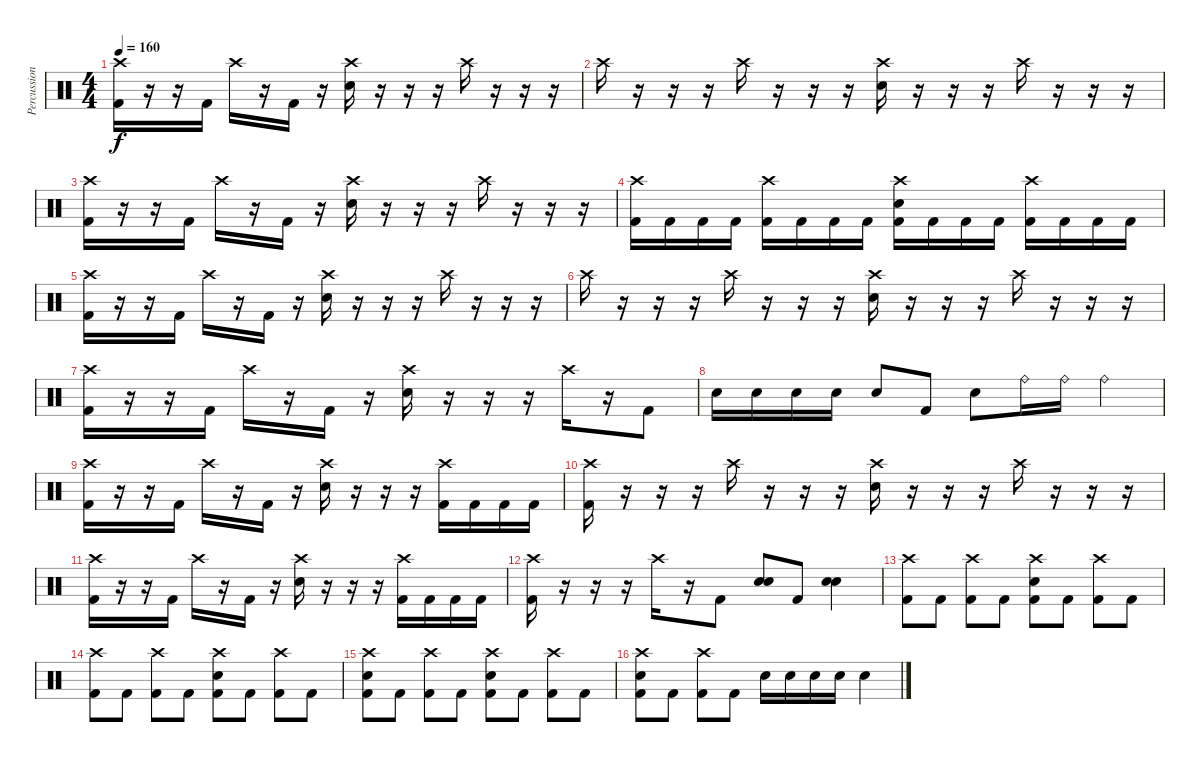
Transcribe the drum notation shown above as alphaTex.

\track ("Percussion" "Percussion") {instrument percussion}
\staff {score}
\articulation defaults
\ts (4 4)
\tempo 160
\clef neutral
\ks c
("Crash high (hit)" "Kick (hit) 2").16{dy f} r.16 r.16 "Kick (hit) 2".16 "Crash high (hit)".16 r.16 "Kick (hit) 2".16 r.16 ("Crash high (hit)" "Snare (hit) 2").16 r.16 r.16 r.16 "Crash high (hit)".16 r.16 r.16 r.16 |
"Crash high (hit)".16 r.16 r.16 r.16 "Crash high (hit)".16 r.16 r.16 r.16 ("Crash high (hit)" "Snare (hit) 2").16 r.16 r.16 r.16 "Crash high (hit)".16 r.16 r.16 r.16 |
("Crash high (hit)" "Kick (hit) 2").16 r.16 r.16 "Kick (hit) 2".16 "Crash high (hit)".16 r.16 "Kick (hit) 2".16 r.16 ("Crash high (hit)" "Snare (hit) 2").16 r.16 r.16 r.16 "Crash high (hit)".16 r.16 r.16 r.16 |
("Crash high (hit)" "Kick (hit) 2").16 "Kick (hit) 2".16 "Kick (hit) 2".16 "Kick (hit) 2".16 ("Crash high (hit)" "Kick (hit) 2").16 "Kick (hit) 2".16 "Kick (hit) 2".16 "Kick (hit) 2".16 ("Crash high (hit)" "Snare (hit) 2" "Kick (hit) 2").16 "Kick (hit) 2".16 "Kick (hit) 2".16 "Kick (hit) 2".16 ("Crash high (hit)" "Kick (hit) 2").16 "Kick (hit) 2".16 "Kick (hit) 2".16 "Kick (hit) 2".16 |
("Crash high (hit)" "Kick (hit) 2").16 r.16 r.16 "Kick (hit) 2".16 "Crash high (hit)".16 r.16 "Kick (hit) 2".16 r.16 ("Crash high (hit)" "Snare (hit) 2").16 r.16 r.16 r.16 "Crash high (hit)".16 r.16 r.16 r.16 |
"Crash high (hit)".16 r.16 r.16 r.16 "Crash high (hit)".16 r.16 r.16 r.16 ("Crash high (hit)" "Snare (hit) 2").16 r.16 r.16 r.16 "Crash high (hit)".16 r.16 r.16 r.16 |
("Crash high (hit)" "Kick (hit) 2").16 r.16 r.16 "Kick (hit) 2".16 "Crash high (hit)".16 r.16 "Kick (hit) 2".16 r.16 ("Crash high (hit)" "Snare (hit) 2").16 r.16 r.16 r.16 "Crash high (hit)".16 r.16 "Kick (hit) 2".8 |
"Snare (hit) 2".16 "Snare (hit) 2".16 "Snare (hit) 2".16 "Snare (hit) 2".16 "Snare (hit) 2".8 "Kick (hit) 2".8 "Snare (hit) 2".8 "Ride (bell)".16 "Ride (bell)".16 "Ride (bell)".4 |
("Crash high (hit)" "Kick (hit) 2").16 r.16 r.16 "Kick (hit) 2".16 "Crash high (hit)".16 r.16 "Kick (hit) 2".16 r.16 ("Crash high (hit)" "Snare (hit) 2").16 r.16 r.16 r.16 ("Crash high (hit)" "Kick (hit) 2").16 "Kick (hit) 2".16 "Kick (hit) 2".16 "Kick (hit) 2".16 |
("Crash high (hit)" "Kick (hit) 2").16 r.16 r.16 r.16 "Crash high (hit)".16 r.16 r.16 r.16 ("Crash high (hit)" "Snare (hit) 2").16 r.16 r.16 r.16 "Crash high (hit)".16 r.16 r.16 r.16 |
("Crash high (hit)" "Kick (hit) 2").16 r.16 r.16 "Kick (hit) 2".16 "Crash high (hit)".16 r.16 "Kick (hit) 2".16 r.16 ("Crash high (hit)" "Snare (hit) 2").16 r.16 r.16 r.16 ("Crash high (hit)" "Kick (hit) 2").16 "Kick (hit) 2".16 "Kick (hit) 2".16 "Kick (hit) 2".16 |
("Crash high (hit)" "Kick (hit) 2").16 r.16 r.16 r.16 "Crash high (hit)".16 r.16 "Kick (hit) 2".8 ("Snare (hit) 2" "Snare (hit) 2").8{bd 240} "Kick (hit) 2".8 ("Snare (hit) 2" "Snare (hit) 2").4{bd 240} |
("Crash high (hit)" "Kick (hit) 2").8 "Kick (hit) 2".8 ("Crash high (hit)" "Kick (hit) 2").8 "Kick (hit) 2".8 ("Crash high (hit)" "Snare (hit) 2" "Kick (hit) 2").8 "Kick (hit) 2".8 ("Crash high (hit)" "Kick (hit) 2").8 "Kick (hit) 2".8 |
("Crash high (hit)" "Kick (hit) 2").8 "Kick (hit) 2".8 ("Crash high (hit)" "Kick (hit) 2").8 "Kick (hit) 2".8 ("Crash high (hit)" "Snare (hit) 2" "Kick (hit) 2").8 "Kick (hit) 2".8 ("Crash high (hit)" "Kick (hit) 2").8 "Kick (hit) 2".8 |
("Crash high (hit)" "Snare (hit) 2" "Kick (hit) 2").8 "Kick (hit) 2".8 ("Crash high (hit)" "Kick (hit) 2").8 "Kick (hit) 2".8 ("Crash high (hit)" "Snare (hit) 2" "Kick (hit) 2").8 "Kick (hit) 2".8 ("Crash high (hit)" "Kick (hit) 2").8 "Kick (hit) 2".8 |
("Crash high (hit)" "Snare (hit) 2" "Kick (hit) 2").8 "Kick (hit) 2".8 ("Crash high (hit)" "Kick (hit) 2").8 "Kick (hit) 2".8 "Snare (hit) 2".16 "Snare (hit) 2".16 "Snare (hit) 2".16 "Snare (hit) 2".16 "Snare (hit) 2".4
